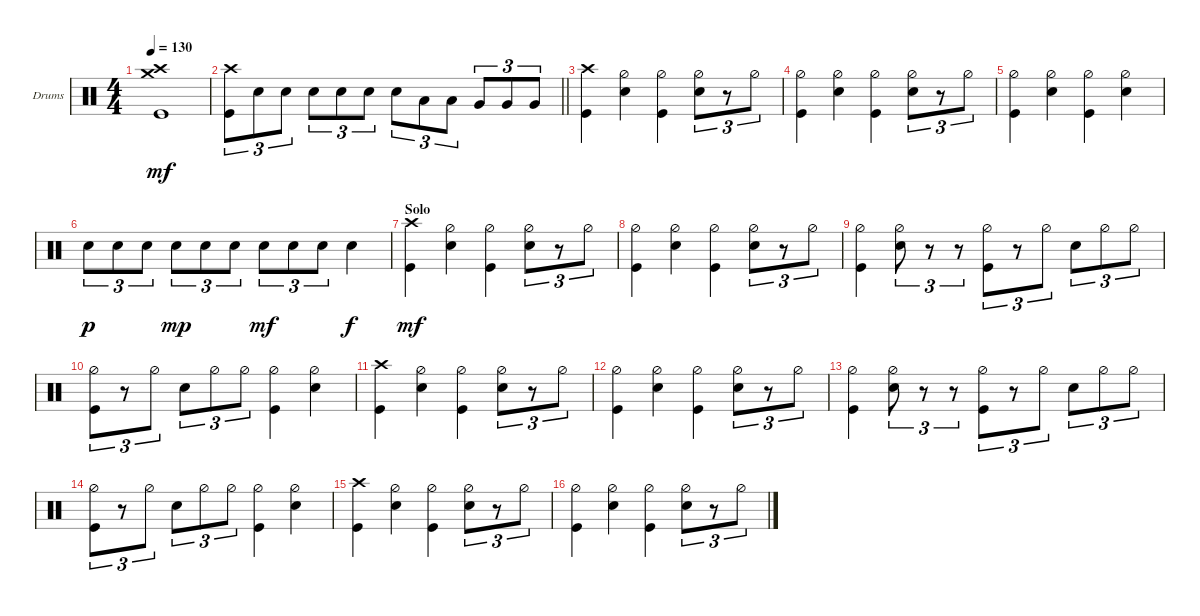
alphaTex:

\bracketExtendMode groupsimilarinstruments
\firstSystemTrackNameOrientation horizontal
\otherSystemsTrackNameOrientation horizontal
\track ("Drums Ghoul" "Drums") {instrument percussion}
\staff {score}
\articulation defaults
\ts (4 4)
\tempo 130
\clef neutral
\ks c
("Kick (hit)" "Crash high (hit)" "Crash medium (hit)").1{dy mf} |
\barLineRight lightlight
("Kick (hit)" "Crash high (hit)").8{tu (3 2)} "Snare (hit) 2".8{tu (3 2)} "Snare (hit) 2".8{tu (3 2)} "Snare (hit) 2".8{tu (3 2)} "Snare (hit) 2".8{tu (3 2)} "Snare (hit) 2".8{tu (3 2)} "Snare (hit) 2".8{tu (3 2)} "Low Tom (hit)".8{tu (3 2)} "Low Tom (hit)".8{tu (3 2)} "Very Low Tom (hit)".8{tu (3 2)} "Very Low Tom (hit)".8{tu (3 2)} "Very Low Tom (hit)".8{tu (3 2)} |
("Kick (hit)" "Crash high (hit)").4 ("Snare (hit) 2" "Hi-Hat (half)").4 ("Kick (hit)" "Hi-Hat (half)").4 ("Snare (hit) 2" "Hi-Hat (half)").8{tu (3 2)} r.8{tu (3 2)} "Hi-Hat (half)".8{tu (3 2)} |
("Kick (hit)" "Hi-Hat (half)").4 ("Snare (hit) 2" "Hi-Hat (half)").4 ("Kick (hit)" "Hi-Hat (half)").4 ("Snare (hit) 2" "Hi-Hat (half)").8{tu (3 2)} r.8{tu (3 2)} "Hi-Hat (half)".8{tu (3 2)} |
("Kick (hit)" "Hi-Hat (half)").4 ("Snare (hit) 2" "Hi-Hat (half)").4 ("Kick (hit)" "Hi-Hat (half)").4 ("Snare (hit) 2" "Hi-Hat (half)").4 |
"Snare (hit) 2".8{tu (3 2) dy p} "Snare (hit) 2".8{tu (3 2)} "Snare (hit) 2".8{tu (3 2)} "Snare (hit) 2".8{tu (3 2) dy mp} "Snare (hit) 2".8{tu (3 2)} "Snare (hit) 2".8{tu (3 2)} "Snare (hit) 2".8{tu (3 2) dy mf} "Snare (hit) 2".8{tu (3 2)} "Snare (hit) 2".8{tu (3 2)} "Snare (hit) 2".4{dy f} |
\section ("" "Solo")
("Kick (hit)" "Crash high (hit)").4{dy mf} ("Snare (hit) 2" "Hi-Hat (half)").4 ("Kick (hit)" "Hi-Hat (half)").4 ("Snare (hit) 2" "Hi-Hat (half)").8{tu (3 2)} r.8{tu (3 2)} "Hi-Hat (half)".8{tu (3 2)} |
("Kick (hit)" "Hi-Hat (half)").4 ("Snare (hit) 2" "Hi-Hat (half)").4 ("Kick (hit)" "Hi-Hat (half)").4 ("Snare (hit) 2" "Hi-Hat (half)").8{tu (3 2)} r.8{tu (3 2)} "Hi-Hat (half)".8{tu (3 2)} |
("Kick (hit)" "Hi-Hat (half)").4 ("Snare (hit) 2" "Hi-Hat (half)").8{tu (3 2)} r.8{tu (3 2)} r.8{tu (3 2)} ("Kick (hit)" "Hi-Hat (half)").8{tu (3 2)} r.8{tu (3 2)} "Hi-Hat (half)".8{tu (3 2)} "Snare (hit) 2".8{tu (3 2)} "Hi-Hat (half)".8{tu (3 2)} "Hi-Hat (half)".8{tu (3 2)} |
("Kick (hit)" "Hi-Hat (half)").8{tu (3 2)} r.8{tu (3 2)} "Hi-Hat (half)".8{tu (3 2)} "Snare (hit) 2".8{tu (3 2)} "Hi-Hat (half)".8{tu (3 2)} "Hi-Hat (half)".8{tu (3 2)} ("Kick (hit)" "Hi-Hat (half)").4 ("Snare (hit) 2" "Hi-Hat (half)").4 |
("Kick (hit)" "Crash high (hit)").4 ("Snare (hit) 2" "Hi-Hat (half)").4 ("Kick (hit)" "Hi-Hat (half)").4 ("Snare (hit) 2" "Hi-Hat (half)").8{tu (3 2)} r.8{tu (3 2)} "Hi-Hat (half)".8{tu (3 2)} |
("Kick (hit)" "Hi-Hat (half)").4 ("Snare (hit) 2" "Hi-Hat (half)").4 ("Kick (hit)" "Hi-Hat (half)").4 ("Snare (hit) 2" "Hi-Hat (half)").8{tu (3 2)} r.8{tu (3 2)} "Hi-Hat (half)".8{tu (3 2)} |
("Kick (hit)" "Hi-Hat (half)").4 ("Snare (hit) 2" "Hi-Hat (half)").8{tu (3 2)} r.8{tu (3 2)} r.8{tu (3 2)} ("Kick (hit)" "Hi-Hat (half)").8{tu (3 2)} r.8{tu (3 2)} "Hi-Hat (half)".8{tu (3 2)} "Snare (hit) 2".8{tu (3 2)} "Hi-Hat (half)".8{tu (3 2)} "Hi-Hat (half)".8{tu (3 2)} |
("Kick (hit)" "Hi-Hat (half)").8{tu (3 2)} r.8{tu (3 2)} "Hi-Hat (half)".8{tu (3 2)} "Snare (hit) 2".8{tu (3 2)} "Hi-Hat (half)".8{tu (3 2)} "Hi-Hat (half)".8{tu (3 2)} ("Kick (hit)" "Hi-Hat (half)").4 ("Snare (hit) 2" "Hi-Hat (half)").4 |
("Kick (hit)" "Crash high (hit)").4 ("Snare (hit) 2" "Hi-Hat (half)").4 ("Kick (hit)" "Hi-Hat (half)").4 ("Snare (hit) 2" "Hi-Hat (half)").8{tu (3 2)} r.8{tu (3 2)} "Hi-Hat (half)".8{tu (3 2)} |
("Kick (hit)" "Hi-Hat (half)").4 ("Snare (hit) 2" "Hi-Hat (half)").4 ("Kick (hit)" "Hi-Hat (half)").4 ("Snare (hit) 2" "Hi-Hat (half)").8{tu (3 2)} r.8{tu (3 2)} "Hi-Hat (half)".8{tu (3 2)}
